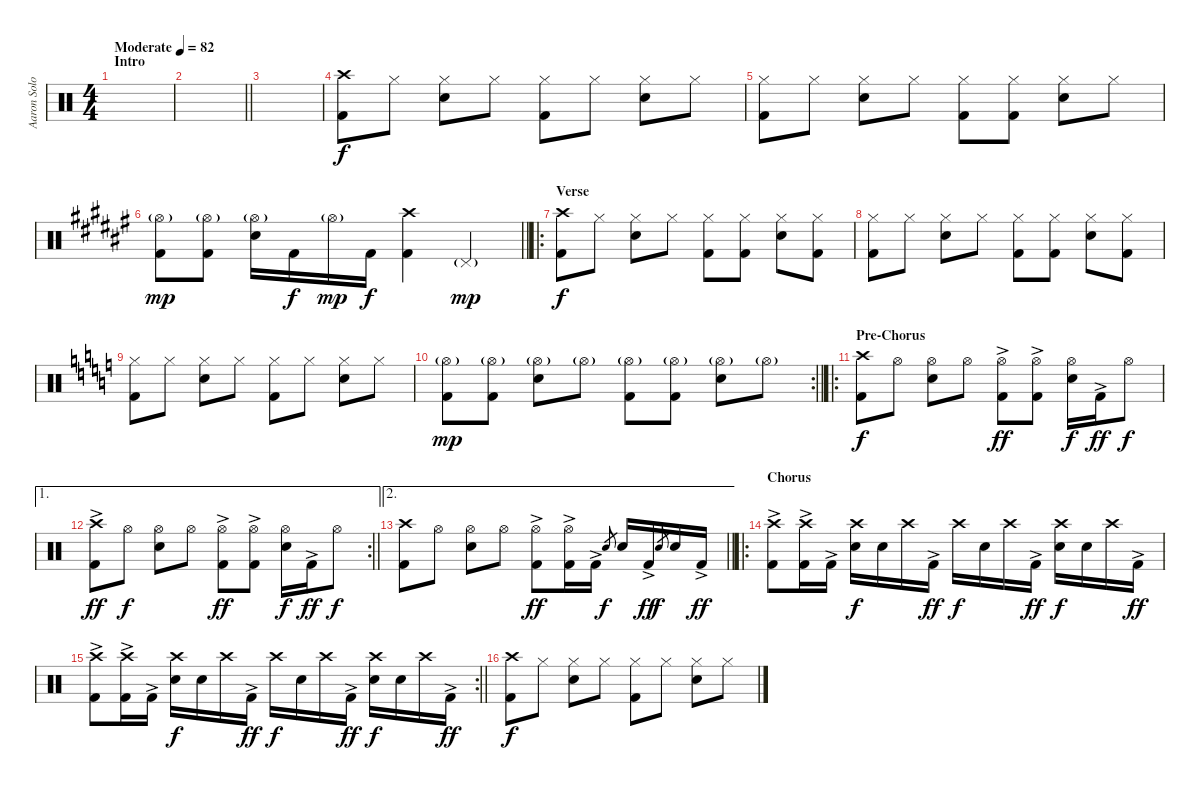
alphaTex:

\track ("Aaron Solowoniuk - Drums" "Aaron Solo") {instrument percussion}
\staff {score}
\articulation defaults
\ts (4 4)
\section ("" "Intro")
\tempo (82 "Moderate")
\clef neutral
\ks c
|
\barLineRight lightlight
|
\section ("" "")
|
("Crash high (hit)" "Kick (hit) 2").8 "Hi-Hat (closed)".8 ("Hi-Hat (closed)" "Snare (hit) 2").8 "Hi-Hat (closed)".8 ("Hi-Hat (closed)" "Kick (hit) 2").8 "Hi-Hat (closed)".8 ("Hi-Hat (closed)" "Snare (hit) 2").8 "Hi-Hat (closed)".8 |
("Hi-Hat (closed)" "Kick (hit) 2").8 "Hi-Hat (closed)".8 ("Hi-Hat (closed)" "Snare (hit) 2").8 "Hi-Hat (closed)".8 ("Hi-Hat (closed)" "Kick (hit) 2").8 ("Hi-Hat (closed)" "Kick (hit) 2").8 ("Hi-Hat (closed)" "Snare (hit) 2").8 "Hi-Hat (closed)".8 |
\barLineRight lightlight
\ks d#minor
("Hi-Hat (open)"{g} "Kick (hit) 2").8{dy mp} ("Hi-Hat (open)"{g} "Kick (hit) 2").8 ("Hi-Hat (open)"{g} "Snare (hit) 2").16 "Kick (hit) 2".16{dy f} "Hi-Hat (open)"{g}.16{dy mp} "Kick (hit) 2".16{dy f} ("Crash high (hit)" "Kick (hit) 2").4 "Pedal Hi-Hat (hit)"{g}.4{dy mp} |
\ro
\section ("" "Verse")
("Crash high (hit)" "Kick (hit) 2").8{dy f} "Hi-Hat (closed)".8 ("Hi-Hat (closed)" "Snare (hit) 2").8 "Hi-Hat (closed)".8 ("Hi-Hat (closed)" "Kick (hit) 2").8 ("Hi-Hat (closed)" "Kick (hit) 2").8 ("Hi-Hat (closed)" "Snare (hit) 2").8 ("Hi-Hat (closed)" "Kick (hit) 2").8 |
("Hi-Hat (closed)" "Kick (hit) 2").8 "Hi-Hat (closed)".8 ("Hi-Hat (closed)" "Snare (hit) 2").8 "Hi-Hat (closed)".8 ("Hi-Hat (closed)" "Kick (hit) 2").8 ("Hi-Hat (closed)" "Kick (hit) 2").8 ("Hi-Hat (closed)" "Snare (hit) 2").8 ("Hi-Hat (closed)" "Kick (hit) 2").8 |
\ks c
("Hi-Hat (closed)" "Kick (hit) 2").8 "Hi-Hat (closed)".8 ("Hi-Hat (closed)" "Snare (hit) 2").8 "Hi-Hat (closed)".8 ("Hi-Hat (closed)" "Kick (hit) 2").8 "Hi-Hat (closed)".8 ("Hi-Hat (closed)" "Snare (hit) 2").8 "Hi-Hat (closed)".8 |
\rc 2
\barLineRight lightlight
("Hi-Hat (open)"{g} "Kick (hit) 2").8{dy mp} ("Hi-Hat (open)"{g} "Kick (hit) 2").8 ("Hi-Hat (open)"{g} "Snare (hit) 2").8 "Hi-Hat (open)"{g}.8 ("Hi-Hat (open)"{g} "Kick (hit) 2").8 ("Hi-Hat (open)"{g} "Kick (hit) 2").8 ("Hi-Hat (open)"{g} "Snare (hit) 2").8 "Hi-Hat (open)"{g}.8 |
\ro
\section ("" "Pre-Chorus")
("Crash high (hit)" "Kick (hit) 2").8{dy f} "Hi-Hat (open)".8 ("Hi-Hat (open)" "Snare (hit) 2").8 "Hi-Hat (open)".8 ("Hi-Hat (open)" "Kick (hit) 2"{ac}).8{dy ff} ("Hi-Hat (open)" "Kick (hit) 2"{ac}).8 ("Hi-Hat (open)" "Snare (hit) 2").16{dy f} "Kick (hit) 2"{ac}.16{dy ff} "Hi-Hat (open)".8{dy f} |
\ae 1
\rc 2
\barLineRight lightlight
("Crash high (hit)" "Kick (hit) 2"{ac}).8{dy ff} "Hi-Hat (open)".8{dy f} ("Hi-Hat (open)" "Snare (hit) 2").8 "Hi-Hat (open)".8 ("Hi-Hat (open)" "Kick (hit) 2"{ac}).8{dy ff} ("Hi-Hat (open)" "Kick (hit) 2"{ac}).8 ("Hi-Hat (open)" "Snare (hit) 2").16{dy f} "Kick (hit) 2"{ac}.16{dy ff} "Hi-Hat (open)".8{dy f} |
\ae 2
\barLineRight lightlight
("Crash high (hit)" "Kick (hit) 2").8 "Hi-Hat (open)".8 ("Hi-Hat (open)" "Snare (hit) 2").8 "Hi-Hat (open)".8 ("Hi-Hat (open)" "Kick (hit) 2"{ac}).8{dy ff} ("Hi-Hat (open)" "Kick (hit) 2"{ac}).16 "Kick (hit) 2"{ac}.16 "Snare (hit) 2"{h}.8{gr dy f} "Snare (hit) 2".16 "Kick (hit) 2"{ac}.16{dy ff} "Snare (hit) 2"{h}.8{gr dy f} "Snare (hit) 2".16 "Kick (hit) 2"{ac}.16{dy ff} |
\ro
\section ("" "Chorus")
("Crash high (hit)" "Kick (hit) 2"{ac}).8 ("Crash high (hit)" "Kick (hit) 2"{ac}).16 "Kick (hit) 2"{ac}.16 ("Crash high (hit)" "Snare (hit) 2").16{dy f} "Snare (hit) 2".16 "Crash high (hit)".16 "Kick (hit) 2"{ac}.16{dy ff} "Crash high (hit)".16{dy f} "Snare (hit) 2".16 "Crash high (hit)".16 "Kick (hit) 2"{ac}.16{dy ff} ("Crash high (hit)" "Snare (hit) 2").16{dy f} "Snare (hit) 2".16 "Crash high (hit)".16 "Kick (hit) 2"{ac}.16{dy ff} |
\rc 2
\barLineRight lightlight
("Crash high (hit)" "Kick (hit) 2"{ac}).8 ("Crash high (hit)" "Kick (hit) 2"{ac}).16 "Kick (hit) 2"{ac}.16 ("Crash high (hit)" "Snare (hit) 2").16{dy f} "Snare (hit) 2".16 "Crash high (hit)".16 "Kick (hit) 2"{ac}.16{dy ff} "Crash high (hit)".16{dy f} "Snare (hit) 2".16 "Crash high (hit)".16 "Kick (hit) 2"{ac}.16{dy ff} ("Crash high (hit)" "Snare (hit) 2").16{dy f} "Snare (hit) 2".16 "Crash high (hit)".16 "Kick (hit) 2"{ac}.16{dy ff} |
("Crash high (hit)" "Kick (hit) 2").8{dy f} "Hi-Hat (closed)".8 ("Hi-Hat (closed)" "Snare (hit) 2").8 "Hi-Hat (closed)".8 ("Hi-Hat (closed)" "Kick (hit) 2").8 "Hi-Hat (closed)".8 ("Hi-Hat (closed)" "Snare (hit) 2").8 "Hi-Hat (closed)".8
